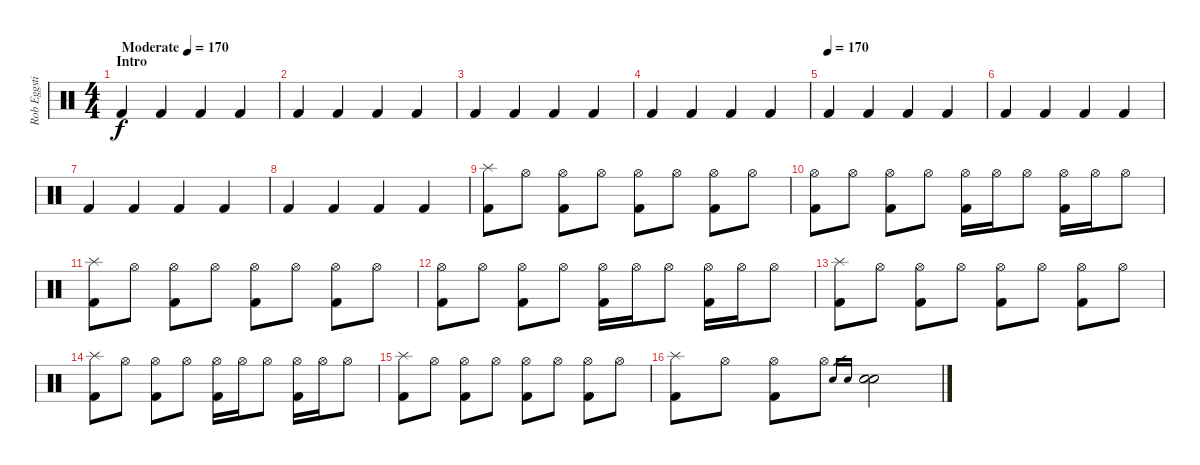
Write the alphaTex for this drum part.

\track ("Rob Eggstick" "Rob Eggsti") {instrument percussion}
\staff {score}
\articulation defaults
\ts (4 4)
\section ("" "Intro")
\tempo (170 "Moderate")
\clef neutral
\ks c "Kick (hit) 2".4{dy f} "Kick (hit) 2".4 "Kick (hit) 2".4 "Kick (hit) 2".4
|
"Kick (hit) 2".4 "Kick (hit) 2".4 "Kick (hit) 2".4 "Kick (hit) 2".4 |
"Kick (hit) 2".4 "Kick (hit) 2".4 "Kick (hit) 2".4 "Kick (hit) 2".4 |
"Kick (hit) 2".4 "Kick (hit) 2".4 "Kick (hit) 2".4 "Kick (hit) 2".4 |
\tempo (170)
"Kick (hit) 2".4 "Kick (hit) 2".4 "Kick (hit) 2".4 "Kick (hit) 2".4 |
"Kick (hit) 2".4 "Kick (hit) 2".4 "Kick (hit) 2".4 "Kick (hit) 2".4 |
"Kick (hit) 2".4 "Kick (hit) 2".4 "Kick (hit) 2".4 "Kick (hit) 2".4 |
"Kick (hit) 2".4 "Kick (hit) 2".4 "Kick (hit) 2".4 "Kick (hit) 2".4 |
("Splash (hit)" "Kick (hit) 2").8 "Hi-Hat (open)".8 ("Hi-Hat (open)" "Kick (hit) 2").8 "Hi-Hat (open)".8 ("Hi-Hat (open)" "Kick (hit) 2").8 "Hi-Hat (open)".8 ("Hi-Hat (open)" "Kick (hit) 2").8 "Hi-Hat (open)".8 |
("Hi-Hat (open)" "Kick (hit) 2").8 "Hi-Hat (open)".8 ("Hi-Hat (open)" "Kick (hit) 2").8 "Hi-Hat (open)".8 ("Hi-Hat (open)" "Kick (hit) 2").16 "Hi-Hat (open)".16 "Hi-Hat (open)".8 ("Hi-Hat (open)" "Kick (hit) 2").16 "Hi-Hat (open)".16 "Hi-Hat (open)".8 |
("Splash (hit)" "Kick (hit) 2").8 "Hi-Hat (open)".8 ("Hi-Hat (open)" "Kick (hit) 2").8 "Hi-Hat (open)".8 ("Hi-Hat (open)" "Kick (hit) 2").8 "Hi-Hat (open)".8 ("Hi-Hat (open)" "Kick (hit) 2").8 "Hi-Hat (open)".8 |
("Hi-Hat (open)" "Kick (hit) 2").8 "Hi-Hat (open)".8 ("Hi-Hat (open)" "Kick (hit) 2").8 "Hi-Hat (open)".8 ("Hi-Hat (open)" "Kick (hit) 2").16 "Hi-Hat (open)".16 "Hi-Hat (open)".8 ("Hi-Hat (open)" "Kick (hit) 2").16 "Hi-Hat (open)".16 "Hi-Hat (open)".8 |
("Splash (hit)" "Kick (hit) 2").8 "Hi-Hat (open)".8 ("Hi-Hat (open)" "Kick (hit) 2").8 "Hi-Hat (open)".8 ("Hi-Hat (open)" "Kick (hit) 2").8 "Hi-Hat (open)".8 ("Hi-Hat (open)" "Kick (hit) 2").8 "Hi-Hat (open)".8 |
("Splash (hit)" "Kick (hit) 2").8 "Hi-Hat (open)".8 ("Hi-Hat (open)" "Kick (hit) 2").8 "Hi-Hat (open)".8 ("Hi-Hat (open)" "Kick (hit) 2").16 "Hi-Hat (open)".16 "Hi-Hat (open)".8 ("Hi-Hat (open)" "Kick (hit) 2").16 "Hi-Hat (open)".16 "Hi-Hat (open)".8 |
("Splash (hit)" "Kick (hit) 2").8 "Hi-Hat (open)".8 ("Hi-Hat (open)" "Kick (hit) 2").8 "Hi-Hat (open)".8 ("Hi-Hat (open)" "Kick (hit) 2").8 "Hi-Hat (open)".8 ("Hi-Hat (open)" "Kick (hit) 2").8 "Hi-Hat (open)".8 |
("Splash (hit)" "Kick (hit) 2").8 "Hi-Hat (open)".8 ("Hi-Hat (open)" "Kick (hit) 2").8 "Hi-Hat (open)".8 "Electric Snare (hit)".16{gr} "Electric Snare (hit)".16{gr} ("Electric Snare (hit)" "Electric Snare (hit)").2
